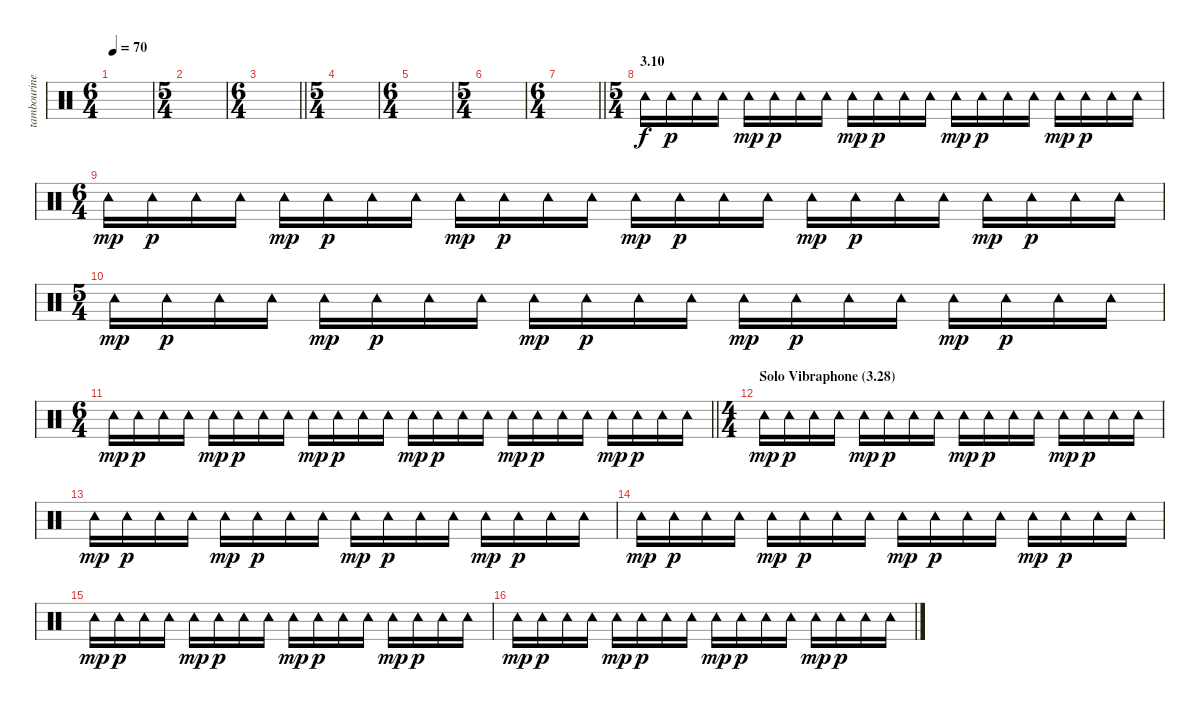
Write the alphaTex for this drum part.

\track ("tambourine" "tambourine") {instrument percussion}
\staff {score}
\articulation defaults
\ts (6 4)
\tempo 70
\clef neutral
\ks c
|
\ts (5 4)
|
\ts (6 4)
\barLineRight lightlight
|
\ts (5 4)
|
\ts (6 4)
|
\ts (5 4)
|
\ts (6 4)
\barLineRight lightlight
|
\ts (5 4)
\section ("" "3.10")
"Tambourine (hit)".16 "Tambourine (hit)".16{dy p} "Tambourine (hit)".16 "Tambourine (hit)".16 "Tambourine (hit)".16{dy mp} "Tambourine (hit)".16{dy p} "Tambourine (hit)".16 "Tambourine (hit)".16 "Tambourine (hit)".16{dy mp} "Tambourine (hit)".16{dy p} "Tambourine (hit)".16 "Tambourine (hit)".16 "Tambourine (hit)".16{dy mp} "Tambourine (hit)".16{dy p} "Tambourine (hit)".16 "Tambourine (hit)".16 "Tambourine (hit)".16{dy mp} "Tambourine (hit)".16{dy p} "Tambourine (hit)".16 "Tambourine (hit)".16 |
\ts (6 4)
"Tambourine (hit)".16{dy mp} "Tambourine (hit)".16{dy p} "Tambourine (hit)".16 "Tambourine (hit)".16 "Tambourine (hit)".16{dy mp} "Tambourine (hit)".16{dy p} "Tambourine (hit)".16 "Tambourine (hit)".16 "Tambourine (hit)".16{dy mp} "Tambourine (hit)".16{dy p} "Tambourine (hit)".16 "Tambourine (hit)".16 "Tambourine (hit)".16{dy mp} "Tambourine (hit)".16{dy p} "Tambourine (hit)".16 "Tambourine (hit)".16 "Tambourine (hit)".16{dy mp} "Tambourine (hit)".16{dy p} "Tambourine (hit)".16 "Tambourine (hit)".16 "Tambourine (hit)".16{dy mp} "Tambourine (hit)".16{dy p} "Tambourine (hit)".16 "Tambourine (hit)".16 |
\ts (5 4)
"Tambourine (hit)".16{dy mp} "Tambourine (hit)".16{dy p} "Tambourine (hit)".16 "Tambourine (hit)".16 "Tambourine (hit)".16{dy mp} "Tambourine (hit)".16{dy p} "Tambourine (hit)".16 "Tambourine (hit)".16 "Tambourine (hit)".16{dy mp} "Tambourine (hit)".16{dy p} "Tambourine (hit)".16 "Tambourine (hit)".16 "Tambourine (hit)".16{dy mp} "Tambourine (hit)".16{dy p} "Tambourine (hit)".16 "Tambourine (hit)".16 "Tambourine (hit)".16{dy mp} "Tambourine (hit)".16{dy p} "Tambourine (hit)".16 "Tambourine (hit)".16 |
\ts (6 4)
\barLineRight lightlight "Tambourine (hit)".16{dy mp} "Tambourine (hit)".16{dy p} "Tambourine (hit)".16 "Tambourine (hit)".16 "Tambourine (hit)".16{dy mp} "Tambourine (hit)".16{dy p} "Tambourine (hit)".16 "Tambourine (hit)".16 "Tambourine (hit)".16{dy mp} "Tambourine (hit)".16{dy p} "Tambourine (hit)".16 "Tambourine (hit)".16 "Tambourine (hit)".16{dy mp} "Tambourine (hit)".16{dy p} "Tambourine (hit)".16 "Tambourine (hit)".16 "Tambourine (hit)".16{dy mp} "Tambourine (hit)".16{dy p} "Tambourine (hit)".16 "Tambourine (hit)".16 "Tambourine (hit)".16{dy mp} "Tambourine (hit)".16{dy p} "Tambourine (hit)".16 "Tambourine (hit)".16
|
\ts (4 4)
\section ("" "Solo Vibraphone (3.28)")
"Tambourine (hit)".16{dy mp} "Tambourine (hit)".16{dy p} "Tambourine (hit)".16 "Tambourine (hit)".16 "Tambourine (hit)".16{dy mp} "Tambourine (hit)".16{dy p} "Tambourine (hit)".16 "Tambourine (hit)".16 "Tambourine (hit)".16{dy mp} "Tambourine (hit)".16{dy p} "Tambourine (hit)".16 "Tambourine (hit)".16 "Tambourine (hit)".16{dy mp} "Tambourine (hit)".16{dy p} "Tambourine (hit)".16 "Tambourine (hit)".16 |
"Tambourine (hit)".16{dy mp} "Tambourine (hit)".16{dy p} "Tambourine (hit)".16 "Tambourine (hit)".16 "Tambourine (hit)".16{dy mp} "Tambourine (hit)".16{dy p} "Tambourine (hit)".16 "Tambourine (hit)".16 "Tambourine (hit)".16{dy mp} "Tambourine (hit)".16{dy p} "Tambourine (hit)".16 "Tambourine (hit)".16 "Tambourine (hit)".16{dy mp} "Tambourine (hit)".16{dy p} "Tambourine (hit)".16 "Tambourine (hit)".16 |
"Tambourine (hit)".16{dy mp} "Tambourine (hit)".16{dy p} "Tambourine (hit)".16 "Tambourine (hit)".16 "Tambourine (hit)".16{dy mp} "Tambourine (hit)".16{dy p} "Tambourine (hit)".16 "Tambourine (hit)".16 "Tambourine (hit)".16{dy mp} "Tambourine (hit)".16{dy p} "Tambourine (hit)".16 "Tambourine (hit)".16 "Tambourine (hit)".16{dy mp} "Tambourine (hit)".16{dy p} "Tambourine (hit)".16 "Tambourine (hit)".16 |
"Tambourine (hit)".16{dy mp} "Tambourine (hit)".16{dy p} "Tambourine (hit)".16 "Tambourine (hit)".16 "Tambourine (hit)".16{dy mp} "Tambourine (hit)".16{dy p} "Tambourine (hit)".16 "Tambourine (hit)".16 "Tambourine (hit)".16{dy mp} "Tambourine (hit)".16{dy p} "Tambourine (hit)".16 "Tambourine (hit)".16 "Tambourine (hit)".16{dy mp} "Tambourine (hit)".16{dy p} "Tambourine (hit)".16 "Tambourine (hit)".16 |
"Tambourine (hit)".16{dy mp} "Tambourine (hit)".16{dy p} "Tambourine (hit)".16 "Tambourine (hit)".16 "Tambourine (hit)".16{dy mp} "Tambourine (hit)".16{dy p} "Tambourine (hit)".16 "Tambourine (hit)".16 "Tambourine (hit)".16{dy mp} "Tambourine (hit)".16{dy p} "Tambourine (hit)".16 "Tambourine (hit)".16 "Tambourine (hit)".16{dy mp} "Tambourine (hit)".16{dy p} "Tambourine (hit)".16 "Tambourine (hit)".16
